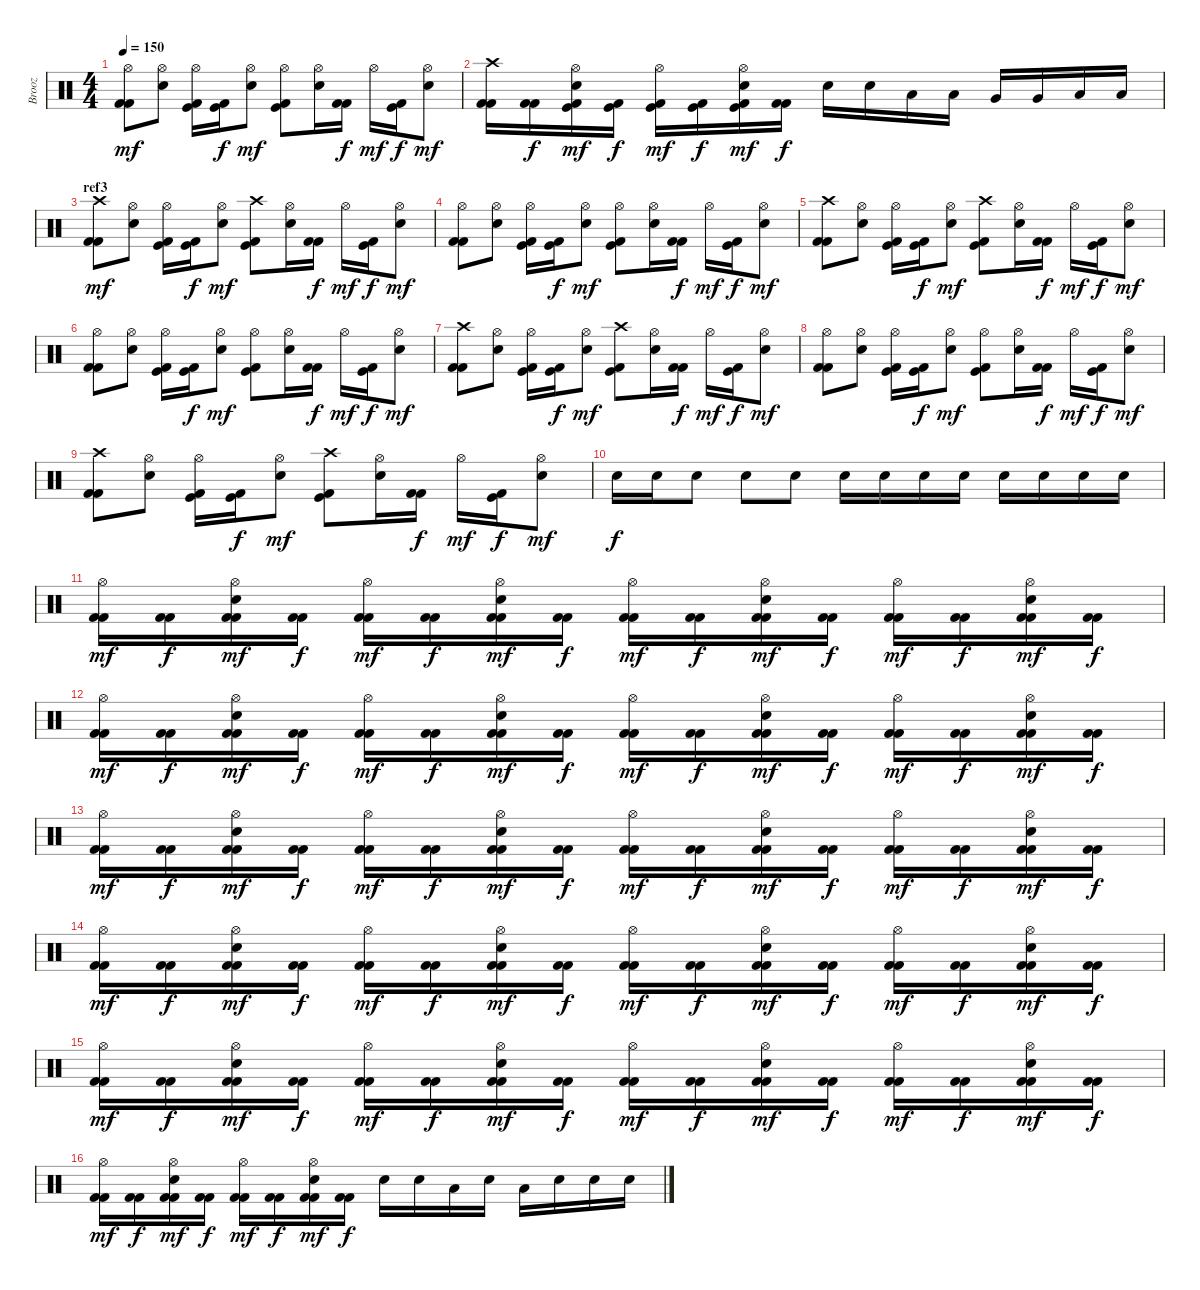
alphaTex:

\track ("Brooz" "Brooz") {instrument percussion}
\staff {score}
\articulation defaults
\ts (4 4)
\tempo 150
\clef neutral
\ks c
("Hi-Hat (open)" "Kick (hit) 2" "Kick (hit) 2").8{dy mf} ("Hi-Hat (open)" "Snare (hit) 2").8 ("Hi-Hat (open)" "Kick (hit) 2" "Kick (hit)").16 ("Kick (hit) 2" "Kick (hit)").16{dy f} ("Hi-Hat (open)" "Snare (hit) 2").8{dy mf} ("Hi-Hat (open)" "Kick (hit) 2" "Kick (hit)").8 ("Hi-Hat (open)" "Snare (hit) 2").16 ("Kick (hit) 2" "Kick (hit) 2").16{dy f} "Hi-Hat (open)".16{dy mf} ("Kick (hit) 2" "Kick (hit)").16{dy f} ("Hi-Hat (open)" "Snare (hit) 2").8{dy mf} |
("Crash high (hit)" "Kick (hit) 2" "Kick (hit) 2").16 ("Kick (hit) 2" "Kick (hit) 2").16{dy f} ("Hi-Hat (open)" "Snare (hit) 2" "Kick (hit) 2" "Kick (hit)").16{dy mf} ("Kick (hit) 2" "Kick (hit)").16{dy f} ("Hi-Hat (open)" "Kick (hit) 2" "Kick (hit)").16{dy mf} ("Kick (hit) 2" "Kick (hit)").16{dy f} ("Hi-Hat (open)" "Snare (hit) 2" "Kick (hit) 2" "Kick (hit)").16{dy mf} ("Kick (hit) 2" "Kick (hit) 2").16{dy f} "Snare (hit) 2".16 "Snare (hit) 2".16 "Low Tom (hit)".16 "Low Tom (hit)".16 "Very Low Tom (hit)".16 "Very Low Tom (hit)".16 "Low Floor Tom (hit)".16 "Low Floor Tom (hit)".16 |
\section ("" "ref3")
("Crash high (hit)" "Kick (hit) 2" "Kick (hit) 2").8{dy mf} ("Hi-Hat (open)" "Snare (hit) 2").8 ("Hi-Hat (open)" "Kick (hit) 2" "Kick (hit)").16 ("Kick (hit) 2" "Kick (hit)").16{dy f} ("Hi-Hat (open)" "Snare (hit) 2").8{dy mf} ("Crash high (hit)" "Kick (hit) 2" "Kick (hit)").8 ("Hi-Hat (open)" "Snare (hit) 2").16 ("Kick (hit) 2" "Kick (hit) 2").16{dy f} "Hi-Hat (open)".16{dy mf} ("Kick (hit) 2" "Kick (hit)").16{dy f} ("Hi-Hat (open)" "Snare (hit) 2").8{dy mf} |
("Hi-Hat (open)" "Kick (hit) 2" "Kick (hit) 2").8 ("Hi-Hat (open)" "Snare (hit) 2").8 ("Hi-Hat (open)" "Kick (hit) 2" "Kick (hit)").16 ("Kick (hit) 2" "Kick (hit)").16{dy f} ("Hi-Hat (open)" "Snare (hit) 2").8{dy mf} ("Hi-Hat (open)" "Kick (hit) 2" "Kick (hit)").8 ("Hi-Hat (open)" "Snare (hit) 2").16 ("Kick (hit) 2" "Kick (hit) 2").16{dy f} "Hi-Hat (open)".16{dy mf} ("Kick (hit) 2" "Kick (hit)").16{dy f} ("Hi-Hat (open)" "Snare (hit) 2").8{dy mf} |
("Crash high (hit)" "Kick (hit) 2" "Kick (hit) 2").8 ("Hi-Hat (open)" "Snare (hit) 2").8 ("Hi-Hat (open)" "Kick (hit) 2" "Kick (hit)").16 ("Kick (hit) 2" "Kick (hit)").16{dy f} ("Hi-Hat (open)" "Snare (hit) 2").8{dy mf} ("Crash high (hit)" "Kick (hit) 2" "Kick (hit)").8 ("Hi-Hat (open)" "Snare (hit) 2").16 ("Kick (hit) 2" "Kick (hit) 2").16{dy f} "Hi-Hat (open)".16{dy mf} ("Kick (hit) 2" "Kick (hit)").16{dy f} ("Hi-Hat (open)" "Snare (hit) 2").8{dy mf} |
("Hi-Hat (open)" "Kick (hit) 2" "Kick (hit) 2").8 ("Hi-Hat (open)" "Snare (hit) 2").8 ("Hi-Hat (open)" "Kick (hit) 2" "Kick (hit)").16 ("Kick (hit) 2" "Kick (hit)").16{dy f} ("Hi-Hat (open)" "Snare (hit) 2").8{dy mf} ("Hi-Hat (open)" "Kick (hit) 2" "Kick (hit)").8 ("Hi-Hat (open)" "Snare (hit) 2").16 ("Kick (hit) 2" "Kick (hit) 2").16{dy f} "Hi-Hat (open)".16{dy mf} ("Kick (hit) 2" "Kick (hit)").16{dy f} ("Hi-Hat (open)" "Snare (hit) 2").8{dy mf} |
("Crash high (hit)" "Kick (hit) 2" "Kick (hit) 2").8 ("Hi-Hat (open)" "Snare (hit) 2").8 ("Hi-Hat (open)" "Kick (hit) 2" "Kick (hit)").16 ("Kick (hit) 2" "Kick (hit)").16{dy f} ("Hi-Hat (open)" "Snare (hit) 2").8{dy mf} ("Crash high (hit)" "Kick (hit) 2" "Kick (hit)").8 ("Hi-Hat (open)" "Snare (hit) 2").16 ("Kick (hit) 2" "Kick (hit) 2").16{dy f} "Hi-Hat (open)".16{dy mf} ("Kick (hit) 2" "Kick (hit)").16{dy f} ("Hi-Hat (open)" "Snare (hit) 2").8{dy mf} |
("Hi-Hat (open)" "Kick (hit) 2" "Kick (hit) 2").8 ("Hi-Hat (open)" "Snare (hit) 2").8 ("Hi-Hat (open)" "Kick (hit) 2" "Kick (hit)").16 ("Kick (hit) 2" "Kick (hit)").16{dy f} ("Hi-Hat (open)" "Snare (hit) 2").8{dy mf} ("Hi-Hat (open)" "Kick (hit) 2" "Kick (hit)").8 ("Hi-Hat (open)" "Snare (hit) 2").16 ("Kick (hit) 2" "Kick (hit) 2").16{dy f} "Hi-Hat (open)".16{dy mf} ("Kick (hit) 2" "Kick (hit)").16{dy f} ("Hi-Hat (open)" "Snare (hit) 2").8{dy mf} |
("Crash high (hit)" "Kick (hit) 2" "Kick (hit) 2").8 ("Hi-Hat (open)" "Snare (hit) 2").8 ("Hi-Hat (open)" "Kick (hit) 2" "Kick (hit)").16 ("Kick (hit) 2" "Kick (hit)").16{dy f} ("Hi-Hat (open)" "Snare (hit) 2").8{dy mf} ("Crash high (hit)" "Kick (hit) 2" "Kick (hit)").8 ("Hi-Hat (open)" "Snare (hit) 2").16 ("Kick (hit) 2" "Kick (hit) 2").16{dy f} "Hi-Hat (open)".16{dy mf} ("Kick (hit) 2" "Kick (hit)").16{dy f} ("Hi-Hat (open)" "Snare (hit) 2").8{dy mf} |
"Snare (hit) 2".16{dy f} "Snare (hit) 2".16 "Snare (hit) 2".8 "Snare (hit) 2".8 "Snare (hit) 2".8 "Snare (hit) 2".16 "Snare (hit) 2".16 "Snare (hit) 2".16 "Snare (hit) 2".16 "Snare (hit) 2".16 "Snare (hit) 2".16 "Snare (hit) 2".16 "Snare (hit) 2".16 |
("Hi-Hat (open)" "Kick (hit) 2" "Kick (hit) 2").16{dy mf} ("Kick (hit) 2" "Kick (hit) 2").16{dy f} ("Hi-Hat (open)" "Snare (hit) 2" "Kick (hit) 2" "Kick (hit) 2").16{dy mf} ("Kick (hit) 2" "Kick (hit) 2").16{dy f} ("Hi-Hat (open)" "Kick (hit) 2" "Kick (hit) 2").16{dy mf} ("Kick (hit) 2" "Kick (hit) 2").16{dy f} ("Hi-Hat (open)" "Snare (hit) 2" "Kick (hit) 2" "Kick (hit) 2").16{dy mf} ("Kick (hit) 2" "Kick (hit) 2").16{dy f} ("Hi-Hat (open)" "Kick (hit) 2" "Kick (hit) 2").16{dy mf} ("Kick (hit) 2" "Kick (hit) 2").16{dy f} ("Hi-Hat (open)" "Snare (hit) 2" "Kick (hit) 2" "Kick (hit) 2").16{dy mf} ("Kick (hit) 2" "Kick (hit) 2").16{dy f} ("Hi-Hat (open)" "Kick (hit) 2" "Kick (hit) 2").16{dy mf} ("Kick (hit) 2" "Kick (hit) 2").16{dy f} ("Hi-Hat (open)" "Snare (hit) 2" "Kick (hit) 2" "Kick (hit) 2").16{dy mf} ("Kick (hit) 2" "Kick (hit) 2").16{dy f} |
("Hi-Hat (open)" "Kick (hit) 2" "Kick (hit) 2").16{dy mf} ("Kick (hit) 2" "Kick (hit) 2").16{dy f} ("Hi-Hat (open)" "Snare (hit) 2" "Kick (hit) 2" "Kick (hit) 2").16{dy mf} ("Kick (hit) 2" "Kick (hit) 2").16{dy f} ("Hi-Hat (open)" "Kick (hit) 2" "Kick (hit) 2").16{dy mf} ("Kick (hit) 2" "Kick (hit) 2").16{dy f} ("Hi-Hat (open)" "Snare (hit) 2" "Kick (hit) 2" "Kick (hit) 2").16{dy mf} ("Kick (hit) 2" "Kick (hit) 2").16{dy f} ("Hi-Hat (open)" "Kick (hit) 2" "Kick (hit) 2").16{dy mf} ("Kick (hit) 2" "Kick (hit) 2").16{dy f} ("Hi-Hat (open)" "Snare (hit) 2" "Kick (hit) 2" "Kick (hit) 2").16{dy mf} ("Kick (hit) 2" "Kick (hit) 2").16{dy f} ("Hi-Hat (open)" "Kick (hit) 2" "Kick (hit) 2").16{dy mf} ("Kick (hit) 2" "Kick (hit) 2").16{dy f} ("Hi-Hat (open)" "Snare (hit) 2" "Kick (hit) 2" "Kick (hit) 2").16{dy mf} ("Kick (hit) 2" "Kick (hit) 2").16{dy f} |
("Hi-Hat (open)" "Kick (hit) 2" "Kick (hit) 2").16{dy mf} ("Kick (hit) 2" "Kick (hit) 2").16{dy f} ("Hi-Hat (open)" "Snare (hit) 2" "Kick (hit) 2" "Kick (hit) 2").16{dy mf} ("Kick (hit) 2" "Kick (hit) 2").16{dy f} ("Hi-Hat (open)" "Kick (hit) 2" "Kick (hit) 2").16{dy mf} ("Kick (hit) 2" "Kick (hit) 2").16{dy f} ("Hi-Hat (open)" "Snare (hit) 2" "Kick (hit) 2" "Kick (hit) 2").16{dy mf} ("Kick (hit) 2" "Kick (hit) 2").16{dy f} ("Hi-Hat (open)" "Kick (hit) 2" "Kick (hit) 2").16{dy mf} ("Kick (hit) 2" "Kick (hit) 2").16{dy f} ("Hi-Hat (open)" "Snare (hit) 2" "Kick (hit) 2" "Kick (hit) 2").16{dy mf} ("Kick (hit) 2" "Kick (hit) 2").16{dy f} ("Hi-Hat (open)" "Kick (hit) 2" "Kick (hit) 2").16{dy mf} ("Kick (hit) 2" "Kick (hit) 2").16{dy f} ("Hi-Hat (open)" "Snare (hit) 2" "Kick (hit) 2" "Kick (hit) 2").16{dy mf} ("Kick (hit) 2" "Kick (hit) 2").16{dy f} |
("Hi-Hat (open)" "Kick (hit) 2" "Kick (hit) 2").16{dy mf} ("Kick (hit) 2" "Kick (hit) 2").16{dy f} ("Hi-Hat (open)" "Snare (hit) 2" "Kick (hit) 2" "Kick (hit) 2").16{dy mf} ("Kick (hit) 2" "Kick (hit) 2").16{dy f} ("Hi-Hat (open)" "Kick (hit) 2" "Kick (hit) 2").16{dy mf} ("Kick (hit) 2" "Kick (hit) 2").16{dy f} ("Hi-Hat (open)" "Snare (hit) 2" "Kick (hit) 2" "Kick (hit) 2").16{dy mf} ("Kick (hit) 2" "Kick (hit) 2").16{dy f} ("Hi-Hat (open)" "Kick (hit) 2" "Kick (hit) 2").16{dy mf} ("Kick (hit) 2" "Kick (hit) 2").16{dy f} ("Hi-Hat (open)" "Snare (hit) 2" "Kick (hit) 2" "Kick (hit) 2").16{dy mf} ("Kick (hit) 2" "Kick (hit) 2").16{dy f} ("Hi-Hat (open)" "Kick (hit) 2" "Kick (hit) 2").16{dy mf} ("Kick (hit) 2" "Kick (hit) 2").16{dy f} ("Hi-Hat (open)" "Snare (hit) 2" "Kick (hit) 2" "Kick (hit) 2").16{dy mf} ("Kick (hit) 2" "Kick (hit) 2").16{dy f} |
("Hi-Hat (open)" "Kick (hit) 2" "Kick (hit) 2").16{dy mf} ("Kick (hit) 2" "Kick (hit) 2").16{dy f} ("Hi-Hat (open)" "Snare (hit) 2" "Kick (hit) 2" "Kick (hit) 2").16{dy mf} ("Kick (hit) 2" "Kick (hit) 2").16{dy f} ("Hi-Hat (open)" "Kick (hit) 2" "Kick (hit) 2").16{dy mf} ("Kick (hit) 2" "Kick (hit) 2").16{dy f} ("Hi-Hat (open)" "Snare (hit) 2" "Kick (hit) 2" "Kick (hit) 2").16{dy mf} ("Kick (hit) 2" "Kick (hit) 2").16{dy f} ("Hi-Hat (open)" "Kick (hit) 2" "Kick (hit) 2").16{dy mf} ("Kick (hit) 2" "Kick (hit) 2").16{dy f} ("Hi-Hat (open)" "Snare (hit) 2" "Kick (hit) 2" "Kick (hit) 2").16{dy mf} ("Kick (hit) 2" "Kick (hit) 2").16{dy f} ("Hi-Hat (open)" "Kick (hit) 2" "Kick (hit) 2").16{dy mf} ("Kick (hit) 2" "Kick (hit) 2").16{dy f} ("Hi-Hat (open)" "Snare (hit) 2" "Kick (hit) 2" "Kick (hit) 2").16{dy mf} ("Kick (hit) 2" "Kick (hit) 2").16{dy f} |
("Hi-Hat (open)" "Kick (hit) 2" "Kick (hit) 2").16{dy mf} ("Kick (hit) 2" "Kick (hit) 2").16{dy f} ("Hi-Hat (open)" "Snare (hit) 2" "Kick (hit) 2" "Kick (hit) 2").16{dy mf} ("Kick (hit) 2" "Kick (hit) 2").16{dy f} ("Hi-Hat (open)" "Kick (hit) 2" "Kick (hit) 2").16{dy mf} ("Kick (hit) 2" "Kick (hit) 2").16{dy f} ("Hi-Hat (open)" "Snare (hit) 2" "Kick (hit) 2" "Kick (hit) 2").16{dy mf} ("Kick (hit) 2" "Kick (hit) 2").16{dy f} "Snare (hit) 2".16 "Snare (hit) 2".16 "Low Tom (hit)".16 "Snare (hit) 2".16 "Low Tom (hit)".16 "Snare (hit) 2".16 "Snare (hit) 2".16 "Snare (hit) 2".16
